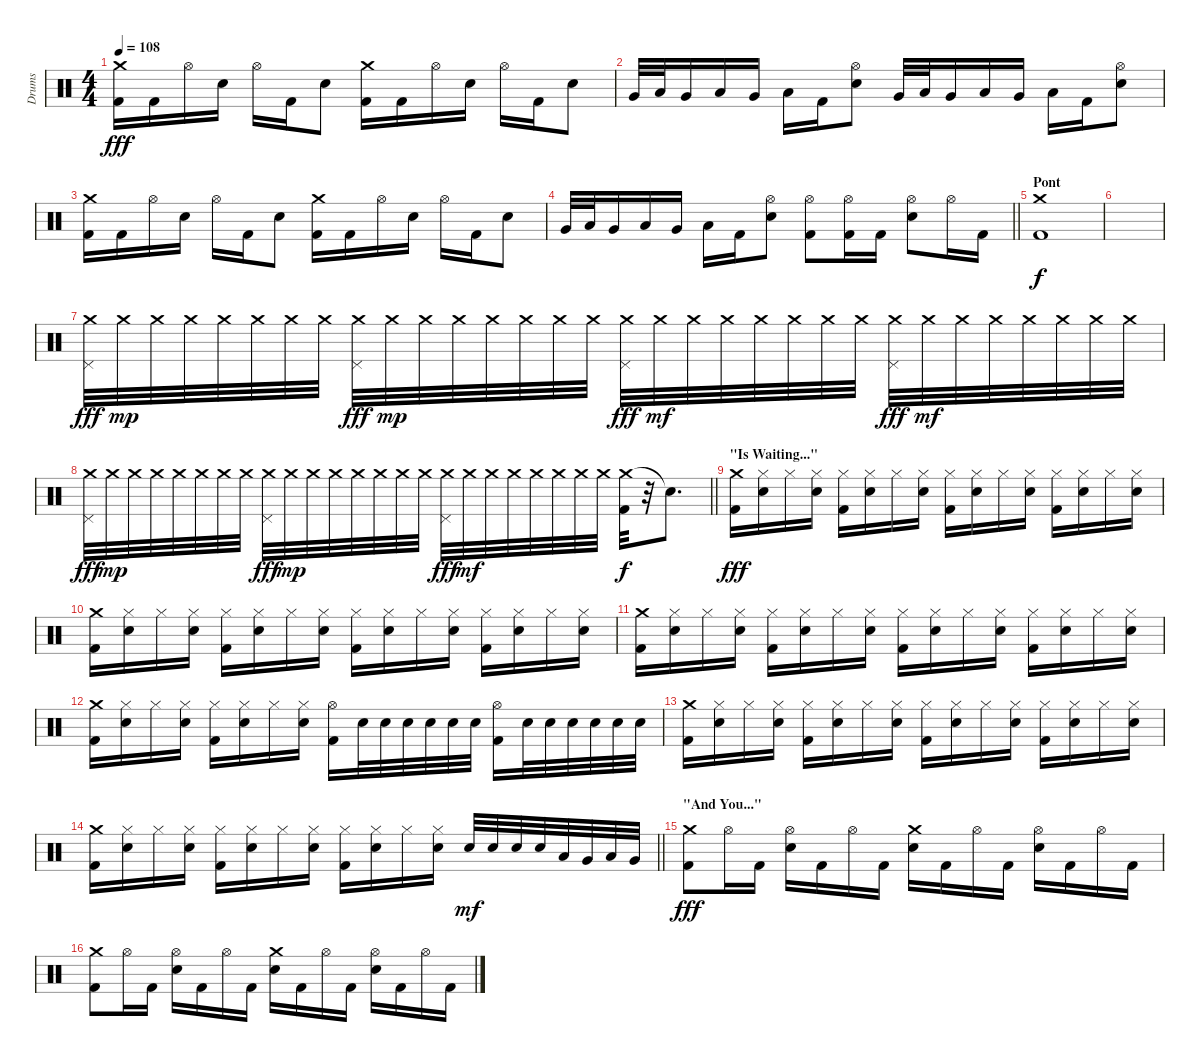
\track ("Drums" "Drums") {instrument percussion}
\staff {score}
\articulation defaults
\ts (4 4)
\tempo 108
\clef neutral
\ks c
("Crash medium (hit)" "Kick (hit) 2").16{dy fff} "Kick (hit) 2".16 "Hi-Hat (open)".16 "Electric Snare (hit)".16 "Hi-Hat (open)".16 "Kick (hit) 2".16 "Electric Snare (hit)".8 ("Crash medium (hit)" "Kick (hit) 2").16 "Kick (hit) 2".16 "Hi-Hat (open)".16 "Electric Snare (hit)".16 "Hi-Hat (open)".16 "Kick (hit) 2".16 "Electric Snare (hit)".8 |
"Very Low Tom (hit)".32 "Low Tom (hit)".32 "Very Low Tom (hit)".16 "Low Floor Tom (hit)".16 "Very Low Tom (hit)".16 "Low Tom (hit)".16 "Kick (hit) 2".16 ("Hi-Hat (open)" "Electric Snare (hit)").8 "Very Low Tom (hit)".32 "Low Tom (hit)".32 "Very Low Tom (hit)".16 "Low Floor Tom (hit)".16 "Very Low Tom (hit)".16 "Low Tom (hit)".16 "Kick (hit) 2".16 ("Hi-Hat (open)" "Electric Snare (hit)").8 |
("Crash medium (hit)" "Kick (hit) 2").16 "Kick (hit) 2".16 "Hi-Hat (open)".16 "Electric Snare (hit)".16 "Hi-Hat (open)".16 "Kick (hit) 2".16 "Electric Snare (hit)".8 ("Crash medium (hit)" "Kick (hit) 2").16 "Kick (hit) 2".16 "Hi-Hat (open)".16 "Electric Snare (hit)".16 "Hi-Hat (open)".16 "Kick (hit) 2".16 "Electric Snare (hit)".8 |
\barLineRight lightlight "Very Low Tom (hit)".32 "Low Tom (hit)".32 "Very Low Tom (hit)".16 "Low Floor Tom (hit)".16 "Very Low Tom (hit)".16 "Low Tom (hit)".16 "Kick (hit) 2".16
("Hi-Hat (open)" "Electric Snare (hit)").8 ("Hi-Hat (open)" "Kick (hit) 2").8 ("Hi-Hat (open)" "Kick (hit) 2").16 "Kick (hit) 2".16 ("Hi-Hat (open)" "Electric Snare (hit)").8 "Hi-Hat (open)".16 "Kick (hit) 2".16 |
\section ("" "Pont")
("Crash medium (hit)" "Kick (hit) 2").1{dy f} |
|
("Crash medium (hit)" "Pedal Hi-Hat (hit)").32{dy fff} "Crash medium (hit)".32{dy mp} "Crash medium (hit)".32 "Crash medium (hit)".32 "Crash medium (hit)".32 "Crash medium (hit)".32 "Crash medium (hit)".32 "Crash medium (hit)".32 ("Crash medium (hit)" "Pedal Hi-Hat (hit)").32{dy fff} "Crash medium (hit)".32{dy mp} "Crash medium (hit)".32 "Crash medium (hit)".32 "Crash medium (hit)".32 "Crash medium (hit)".32 "Crash medium (hit)".32 "Crash medium (hit)".32 ("Crash medium (hit)" "Pedal Hi-Hat (hit)").32{dy fff} "Crash medium (hit)".32{dy mf} "Crash medium (hit)".32 "Crash medium (hit)".32 "Crash medium (hit)".32 "Crash medium (hit)".32 "Crash medium (hit)".32 "Crash medium (hit)".32 ("Crash medium (hit)" "Pedal Hi-Hat (hit)").32{dy fff} "Crash medium (hit)".32{dy mf} "Crash medium (hit)".32 "Crash medium (hit)".32 "Crash medium (hit)".32 "Crash medium (hit)".32 "Crash medium (hit)".32 "Crash medium (hit)".32 |
\barLineRight lightlight
("Crash medium (hit)" "Pedal Hi-Hat (hit)").32{dy fff} "Crash medium (hit)".32{dy mp} "Crash medium (hit)".32 "Crash medium (hit)".32 "Crash medium (hit)".32 "Crash medium (hit)".32 "Crash medium (hit)".32 "Crash medium (hit)".32 ("Crash medium (hit)" "Pedal Hi-Hat (hit)").32{dy fff} "Crash medium (hit)".32{dy mp} "Crash medium (hit)".32 "Crash medium (hit)".32 "Crash medium (hit)".32 "Crash medium (hit)".32 "Crash medium (hit)".32 "Crash medium (hit)".32 ("Crash medium (hit)" "Pedal Hi-Hat (hit)").32{dy fff} "Crash medium (hit)".32{dy mf} "Crash medium (hit)".32 "Crash medium (hit)".32 "Crash medium (hit)".32 "Crash medium (hit)".32 "Crash medium (hit)".32 "Crash medium (hit)".32 ("Crash medium (hit)" "Kick (hit) 2").32{dy f} r.32 "Snare (hit)"{t}.8{d} |
\section ("" "\"Is Waiting...\"")
("Crash medium (hit)" "Kick (hit) 2").16{dy fff} ("Hi-Hat (closed)" "Electric Snare (hit)").16 "Hi-Hat (closed)".16 ("Hi-Hat (closed)" "Electric Snare (hit)").16 ("Hi-Hat (closed)" "Kick (hit) 2").16 ("Hi-Hat (closed)" "Electric Snare (hit)").16 "Hi-Hat (closed)".16 ("Hi-Hat (closed)" "Electric Snare (hit)").16 ("Hi-Hat (closed)" "Kick (hit) 2").16 ("Hi-Hat (closed)" "Electric Snare (hit)").16 "Hi-Hat (closed)".16 ("Hi-Hat (closed)" "Electric Snare (hit)").16 ("Hi-Hat (closed)" "Kick (hit) 2").16 ("Hi-Hat (closed)" "Electric Snare (hit)").16 "Hi-Hat (closed)".16 ("Hi-Hat (closed)" "Electric Snare (hit)").16 |
("Crash medium (hit)" "Kick (hit) 2").16 ("Hi-Hat (closed)" "Electric Snare (hit)").16 "Hi-Hat (closed)".16 ("Hi-Hat (closed)" "Electric Snare (hit)").16 ("Hi-Hat (closed)" "Kick (hit) 2").16 ("Hi-Hat (closed)" "Electric Snare (hit)").16 "Hi-Hat (closed)".16 ("Hi-Hat (closed)" "Electric Snare (hit)").16 ("Hi-Hat (closed)" "Kick (hit) 2").16 ("Hi-Hat (closed)" "Electric Snare (hit)").16 "Hi-Hat (closed)".16 ("Hi-Hat (closed)" "Electric Snare (hit)").16 ("Hi-Hat (closed)" "Kick (hit) 2").16 ("Hi-Hat (closed)" "Electric Snare (hit)").16 "Hi-Hat (closed)".16 ("Hi-Hat (closed)" "Electric Snare (hit)").16 |
("Crash medium (hit)" "Kick (hit) 2").16 ("Hi-Hat (closed)" "Electric Snare (hit)").16 "Hi-Hat (closed)".16 ("Hi-Hat (closed)" "Electric Snare (hit)").16 ("Hi-Hat (closed)" "Kick (hit) 2").16 ("Hi-Hat (closed)" "Electric Snare (hit)").16 "Hi-Hat (closed)".16 ("Hi-Hat (closed)" "Electric Snare (hit)").16 ("Hi-Hat (closed)" "Kick (hit) 2").16 ("Hi-Hat (closed)" "Electric Snare (hit)").16 "Hi-Hat (closed)".16 ("Hi-Hat (closed)" "Electric Snare (hit)").16 ("Hi-Hat (closed)" "Kick (hit) 2").16 ("Hi-Hat (closed)" "Electric Snare (hit)").16 "Hi-Hat (closed)".16 ("Hi-Hat (closed)" "Electric Snare (hit)").16 |
("Crash medium (hit)" "Kick (hit) 2").16 ("Hi-Hat (closed)" "Electric Snare (hit)").16 "Hi-Hat (closed)".16 ("Hi-Hat (closed)" "Electric Snare (hit)").16 ("Hi-Hat (closed)" "Kick (hit) 2").16 ("Hi-Hat (closed)" "Electric Snare (hit)").16 "Hi-Hat (closed)".16 ("Hi-Hat (closed)" "Electric Snare (hit)").16 ("Hi-Hat (open)" "Kick (hit) 2").16 "Electric Snare (hit)".32 "Electric Snare (hit)".32 "Electric Snare (hit)".32 "Electric Snare (hit)".32 "Electric Snare (hit)".32 "Electric Snare (hit)".32 ("Hi-Hat (open)" "Kick (hit) 2").16 "Electric Snare (hit)".32 "Electric Snare (hit)".32 "Electric Snare (hit)".32 "Electric Snare (hit)".32 "Electric Snare (hit)".32 "Electric Snare (hit)".32 |
("Crash medium (hit)" "Kick (hit) 2").16 ("Hi-Hat (closed)" "Electric Snare (hit)").16 "Hi-Hat (closed)".16 ("Hi-Hat (closed)" "Electric Snare (hit)").16 ("Hi-Hat (closed)" "Kick (hit) 2").16 ("Hi-Hat (closed)" "Electric Snare (hit)").16 "Hi-Hat (closed)".16 ("Hi-Hat (closed)" "Electric Snare (hit)").16 ("Hi-Hat (closed)" "Kick (hit) 2").16 ("Hi-Hat (closed)" "Electric Snare (hit)").16 "Hi-Hat (closed)".16 ("Hi-Hat (closed)" "Electric Snare (hit)").16 ("Hi-Hat (closed)" "Kick (hit) 2").16 ("Hi-Hat (closed)" "Electric Snare (hit)").16 "Hi-Hat (closed)".16 ("Hi-Hat (closed)" "Electric Snare (hit)").16 |
\barLineRight lightlight
("Crash medium (hit)" "Kick (hit) 2").16 ("Hi-Hat (closed)" "Electric Snare (hit)").16 "Hi-Hat (closed)".16 ("Hi-Hat (closed)" "Electric Snare (hit)").16 ("Hi-Hat (closed)" "Kick (hit) 2").16 ("Hi-Hat (closed)" "Electric Snare (hit)").16 "Hi-Hat (closed)".16 ("Hi-Hat (closed)" "Electric Snare (hit)").16 ("Hi-Hat (closed)" "Kick (hit) 2").16 ("Hi-Hat (closed)" "Electric Snare (hit)").16 "Hi-Hat (closed)".16 ("Hi-Hat (closed)" "Electric Snare (hit)").16 "Electric Snare (hit)".32{dy mf} "Electric Snare (hit)".32 "Electric Snare (hit)".32 "Electric Snare (hit)".32 "Low Tom (hit)".32 "Very Low Tom (hit)".32 "Low Floor Tom (hit)".32 "Very Low Tom (hit)".32 |
\section ("" "\"And You...\"")
("Crash medium (hit)" "Kick (hit) 2").8{dy fff} "Hi-Hat (open)".16 "Kick (hit) 2".16 ("Hi-Hat (open)" "Electric Snare (hit)").16 "Kick (hit) 2".16 "Hi-Hat (open)".16 "Kick (hit) 2".16 ("Crash medium (hit)" "Electric Snare (hit)").16 "Kick (hit) 2".16 "Hi-Hat (open)".16 "Kick (hit) 2".16 ("Hi-Hat (open)" "Electric Snare (hit)").16 "Kick (hit) 2".16 "Hi-Hat (open)".16 "Kick (hit) 2".16 |
("Crash medium (hit)" "Kick (hit) 2").8 "Hi-Hat (open)".16 "Kick (hit) 2".16 ("Hi-Hat (open)" "Electric Snare (hit)").16 "Kick (hit) 2".16 "Hi-Hat (open)".16 "Kick (hit) 2".16 ("Crash medium (hit)" "Electric Snare (hit)").16 "Kick (hit) 2".16 "Hi-Hat (open)".16 "Kick (hit) 2".16 ("Hi-Hat (open)" "Electric Snare (hit)").16 "Kick (hit) 2".16 "Hi-Hat (open)".16 "Kick (hit) 2".16
